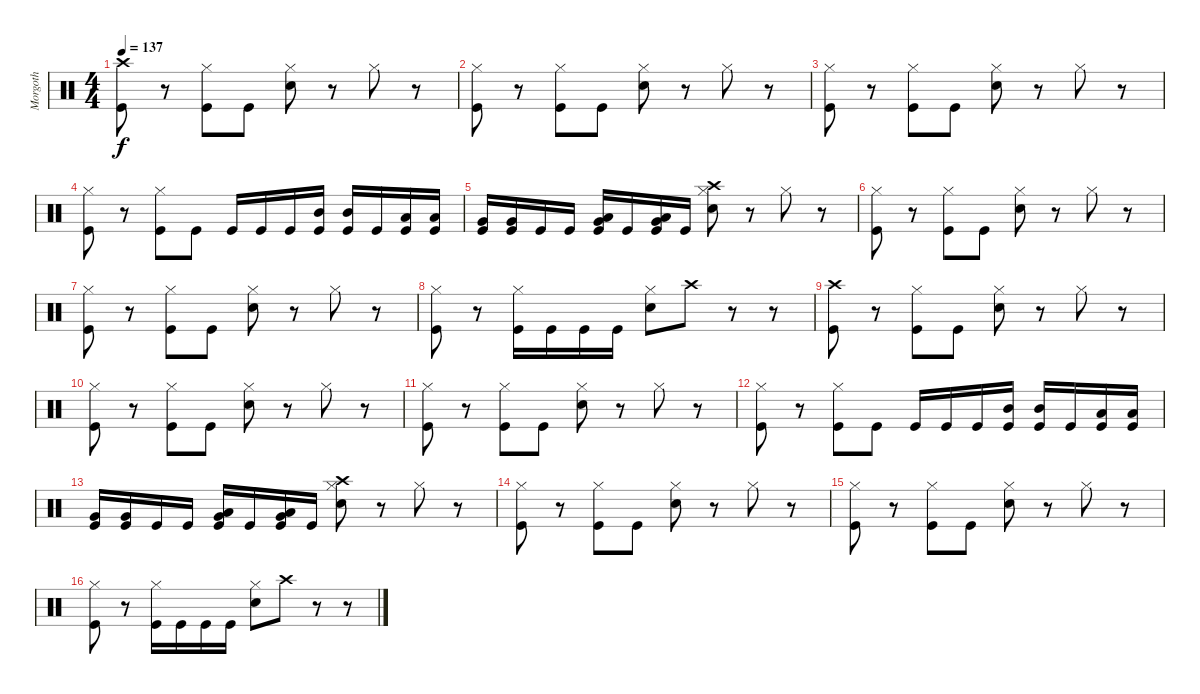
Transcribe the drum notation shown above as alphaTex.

\track ("Morgoth" "Morgoth") {instrument percussion}
\staff {score}
\articulation defaults
\ts (4 4)
\tempo 137
\clef neutral
\ks c
("Crash high (hit)" "Kick (hit)").8{dy f} r.8 ("Hi-Hat (closed)" "Kick (hit)").8 "Kick (hit)".8 ("Hi-Hat (closed)" "Electric Snare (hit)").8 r.8 "Hi-Hat (closed)".8 r.8 |
("Hi-Hat (closed)" "Kick (hit)").8 r.8 ("Hi-Hat (closed)" "Kick (hit)").8 "Kick (hit)".8 ("Hi-Hat (closed)" "Electric Snare (hit)").8 r.8 "Hi-Hat (closed)".8 r.8 |
("Hi-Hat (closed)" "Kick (hit)").8 r.8 ("Hi-Hat (closed)" "Kick (hit)").8 "Kick (hit)".8 ("Hi-Hat (closed)" "Electric Snare (hit)").8 r.8 "Hi-Hat (closed)".8 r.8 |
("Hi-Hat (closed)" "Kick (hit)").8 r.8 ("Hi-Hat (closed)" "Kick (hit)").8 "Kick (hit)".8 "Kick (hit)".16 "Kick (hit)".16 "Kick (hit)".16 ("Mid Tom (hit)" "Kick (hit)").16 ("Mid Tom (hit)" "Kick (hit)").16 "Kick (hit)".16 ("Low Tom (hit)" "Kick (hit)").16 ("Low Tom (hit)" "Kick (hit)").16 |
("Very Low Tom (hit)" "Kick (hit)").16 ("Very Low Tom (hit)" "Kick (hit)").16 "Kick (hit)".16 "Kick (hit)".16 ("Low Tom (hit)" "Very Low Tom (hit)" "Kick (hit)").16 "Kick (hit)".16 ("Low Tom (hit)" "Very Low Tom (hit)" "Kick (hit)").16 "Kick (hit)".16 ("Crash high (hit)" "Hi-Hat (closed)" "Electric Snare (hit)").8 r.8 "Hi-Hat (closed)".8 r.8 |
("Hi-Hat (closed)" "Kick (hit)").8 r.8 ("Hi-Hat (closed)" "Kick (hit)").8 "Kick (hit)".8 ("Hi-Hat (closed)" "Electric Snare (hit)").8 r.8 "Hi-Hat (closed)".8 r.8 |
("Hi-Hat (closed)" "Kick (hit)").8 r.8 ("Hi-Hat (closed)" "Kick (hit)").8 "Kick (hit)".8 ("Hi-Hat (closed)" "Electric Snare (hit)").8 r.8 "Hi-Hat (closed)".8 r.8 |
("Hi-Hat (closed)" "Kick (hit)").8 r.8 ("Hi-Hat (closed)" "Kick (hit)").16 "Kick (hit)".16 "Kick (hit)".16 "Kick (hit)".16 ("Hi-Hat (closed)" "Electric Snare (hit)").8 "Crash high (hit)".8 r.8 r.8 |
("Crash high (hit)" "Kick (hit)").8 r.8 ("Hi-Hat (closed)" "Kick (hit)").8 "Kick (hit)".8 ("Hi-Hat (closed)" "Electric Snare (hit)").8 r.8 "Hi-Hat (closed)".8 r.8 |
("Hi-Hat (closed)" "Kick (hit)").8 r.8 ("Hi-Hat (closed)" "Kick (hit)").8 "Kick (hit)".8 ("Hi-Hat (closed)" "Electric Snare (hit)").8 r.8 "Hi-Hat (closed)".8 r.8 |
("Hi-Hat (closed)" "Kick (hit)").8 r.8 ("Hi-Hat (closed)" "Kick (hit)").8 "Kick (hit)".8 ("Hi-Hat (closed)" "Electric Snare (hit)").8 r.8 "Hi-Hat (closed)".8 r.8 |
("Hi-Hat (closed)" "Kick (hit)").8 r.8 ("Hi-Hat (closed)" "Kick (hit)").8 "Kick (hit)".8 "Kick (hit)".16 "Kick (hit)".16 "Kick (hit)".16 ("Mid Tom (hit)" "Kick (hit)").16 ("Mid Tom (hit)" "Kick (hit)").16 "Kick (hit)".16 ("Low Tom (hit)" "Kick (hit)").16 ("Low Tom (hit)" "Kick (hit)").16 |
("Very Low Tom (hit)" "Kick (hit)").16 ("Very Low Tom (hit)" "Kick (hit)").16 "Kick (hit)".16 "Kick (hit)".16 ("Low Tom (hit)" "Very Low Tom (hit)" "Kick (hit)").16 "Kick (hit)".16 ("Low Tom (hit)" "Very Low Tom (hit)" "Kick (hit)").16 "Kick (hit)".16 ("Crash high (hit)" "Hi-Hat (closed)" "Electric Snare (hit)").8 r.8 "Hi-Hat (closed)".8 r.8 |
("Hi-Hat (closed)" "Kick (hit)").8 r.8 ("Hi-Hat (closed)" "Kick (hit)").8 "Kick (hit)".8 ("Hi-Hat (closed)" "Electric Snare (hit)").8 r.8 "Hi-Hat (closed)".8 r.8 |
("Hi-Hat (closed)" "Kick (hit)").8 r.8 ("Hi-Hat (closed)" "Kick (hit)").8 "Kick (hit)".8 ("Hi-Hat (closed)" "Electric Snare (hit)").8 r.8 "Hi-Hat (closed)".8 r.8 |
("Hi-Hat (closed)" "Kick (hit)").8 r.8 ("Hi-Hat (closed)" "Kick (hit)").16 "Kick (hit)".16 "Kick (hit)".16 "Kick (hit)".16 ("Hi-Hat (closed)" "Electric Snare (hit)").8 "Crash high (hit)".8 r.8 r.8
